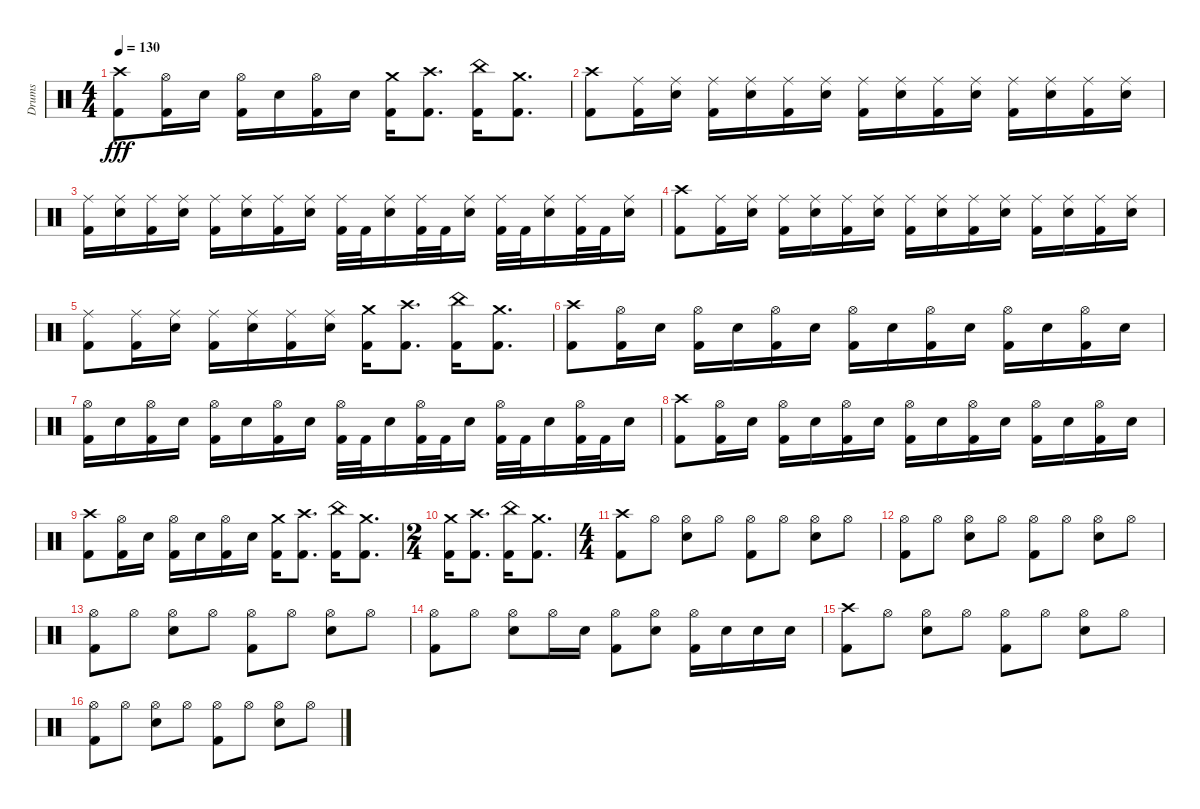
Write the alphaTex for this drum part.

\track ("Drums" "Drums") {instrument percussion}
\staff {score}
\articulation defaults
\ts (4 4)
\tempo 130
\clef neutral
\ks c
("Kick (hit) 2" "Crash high (hit)").8{dy fff} ("Kick (hit) 2" "Hi-Hat (open)").16 "Snare (hit) 2".16 ("Kick (hit) 2" "Hi-Hat (open)").16 "Snare (hit) 2".16 ("Kick (hit) 2" "Hi-Hat (open)").16 "Snare (hit) 2".16 ("Kick (hit) 2" "Crash medium (hit)").16 ("Kick (hit) 2" "Crash high (hit)").8{d} ("Kick (hit) 2" "China (hit)").16 ("Kick (hit) 2" "Crash medium (hit)").8{d} |
("Kick (hit) 2" "Crash high (hit)").8 ("Kick (hit) 2" "Ride (middle)").16 ("Snare (hit) 2" "Ride (middle)").16 ("Kick (hit) 2" "Ride (middle)").16 ("Snare (hit) 2" "Ride (middle)").16 ("Kick (hit) 2" "Ride (middle)").16 ("Snare (hit) 2" "Ride (middle)").16 ("Kick (hit) 2" "Ride (middle)").16 ("Snare (hit) 2" "Ride (middle)").16 ("Kick (hit) 2" "Ride (middle)").16 ("Snare (hit) 2" "Ride (middle)").16 ("Kick (hit) 2" "Ride (middle)").16 ("Snare (hit) 2" "Ride (middle)").16 ("Kick (hit) 2" "Ride (middle)").16 ("Snare (hit) 2" "Ride (middle)").16 |
("Kick (hit) 2" "Ride (middle)").16 ("Snare (hit) 2" "Ride (middle)").16 ("Kick (hit) 2" "Ride (middle)").16 ("Snare (hit) 2" "Ride (middle)").16 ("Kick (hit) 2" "Ride (middle)").16 ("Snare (hit) 2" "Ride (middle)").16 ("Kick (hit) 2" "Ride (middle)").16 ("Snare (hit) 2" "Ride (middle)").16 ("Kick (hit) 2" "Ride (middle)").32 "Kick (hit) 2".32 ("Snare (hit) 2" "Ride (middle)").16 ("Kick (hit) 2" "Ride (middle)").32 "Kick (hit) 2".32 ("Snare (hit) 2" "Ride (middle)").16 ("Kick (hit) 2" "Ride (middle)").32 "Kick (hit) 2".32 ("Snare (hit) 2" "Ride (middle)").16 ("Kick (hit) 2" "Ride (middle)").32 "Kick (hit) 2".32 ("Snare (hit) 2" "Ride (middle)").16 |
("Kick (hit) 2" "Crash high (hit)").8 ("Kick (hit) 2" "Ride (middle)").16 ("Snare (hit) 2" "Ride (middle)").16 ("Kick (hit) 2" "Ride (middle)").16 ("Snare (hit) 2" "Ride (middle)").16 ("Kick (hit) 2" "Ride (middle)").16 ("Snare (hit) 2" "Ride (middle)").16 ("Kick (hit) 2" "Ride (middle)").16 ("Snare (hit) 2" "Ride (middle)").16 ("Kick (hit) 2" "Ride (middle)").16 ("Snare (hit) 2" "Ride (middle)").16 ("Kick (hit) 2" "Ride (middle)").16 ("Snare (hit) 2" "Ride (middle)").16 ("Kick (hit) 2" "Ride (middle)").16 ("Snare (hit) 2" "Ride (middle)").16 |
("Kick (hit) 2" "Ride (middle)").8 ("Kick (hit) 2" "Ride (middle)").16 ("Snare (hit) 2" "Ride (middle)").16 ("Kick (hit) 2" "Ride (middle)").16 ("Snare (hit) 2" "Ride (middle)").16 ("Kick (hit) 2" "Ride (middle)").16 ("Snare (hit) 2" "Ride (middle)").16 ("Kick (hit) 2" "Crash medium (hit)").16 ("Kick (hit) 2" "Crash high (hit)").8{d} ("Kick (hit) 2" "China (hit)").16 ("Kick (hit) 2" "Crash medium (hit)").8{d} |
("Kick (hit) 2" "Crash high (hit)").8 ("Kick (hit) 2" "Hi-Hat (open)").16 "Snare (hit) 2".16 ("Kick (hit) 2" "Hi-Hat (open)").16 "Snare (hit) 2".16 ("Kick (hit) 2" "Hi-Hat (open)").16 "Snare (hit) 2".16 ("Kick (hit) 2" "Hi-Hat (open)").16 "Snare (hit) 2".16 ("Kick (hit) 2" "Hi-Hat (open)").16 "Snare (hit) 2".16 ("Kick (hit) 2" "Hi-Hat (open)").16 "Snare (hit) 2".16 ("Kick (hit) 2" "Hi-Hat (open)").16 "Snare (hit) 2".16 |
("Kick (hit) 2" "Hi-Hat (open)").16 "Snare (hit) 2".16 ("Kick (hit) 2" "Hi-Hat (open)").16 "Snare (hit) 2".16 ("Kick (hit) 2" "Hi-Hat (open)").16 "Snare (hit) 2".16 ("Kick (hit) 2" "Hi-Hat (open)").16 "Snare (hit) 2".16 ("Kick (hit) 2" "Hi-Hat (open)").32 "Kick (hit) 2".32 "Snare (hit) 2".16 ("Kick (hit) 2" "Hi-Hat (open)").32 "Kick (hit) 2".32 "Snare (hit) 2".16 ("Kick (hit) 2" "Hi-Hat (open)").32 "Kick (hit) 2".32 "Snare (hit) 2".16 ("Kick (hit) 2" "Hi-Hat (open)").32 "Kick (hit) 2".32 "Snare (hit) 2".16 |
("Kick (hit) 2" "Crash high (hit)").8 ("Kick (hit) 2" "Hi-Hat (open)").16 "Snare (hit) 2".16 ("Kick (hit) 2" "Hi-Hat (open)").16 "Snare (hit) 2".16 ("Kick (hit) 2" "Hi-Hat (open)").16 "Snare (hit) 2".16 ("Kick (hit) 2" "Hi-Hat (open)").16 "Snare (hit) 2".16 ("Kick (hit) 2" "Hi-Hat (open)").16 "Snare (hit) 2".16 ("Kick (hit) 2" "Hi-Hat (open)").16 "Snare (hit) 2".16 ("Kick (hit) 2" "Hi-Hat (open)").16 "Snare (hit) 2".16 |
("Kick (hit) 2" "Crash high (hit)").8 ("Kick (hit) 2" "Hi-Hat (open)").16 "Snare (hit) 2".16 ("Kick (hit) 2" "Hi-Hat (open)").16 "Snare (hit) 2".16 ("Kick (hit) 2" "Hi-Hat (open)").16 "Snare (hit) 2".16 ("Kick (hit) 2" "Crash medium (hit)").16 ("Kick (hit) 2" "Crash high (hit)").8{d} ("Kick (hit) 2" "China (hit)").16 ("Kick (hit) 2" "Crash medium (hit)").8{d} |
\ts (2 4)
("Kick (hit) 2" "Crash medium (hit)").16 ("Kick (hit) 2" "Crash high (hit)").8{d} ("Kick (hit) 2" "China (hit)").16 ("Kick (hit) 2" "Crash medium (hit)").8{d} |
\ts (4 4)
("Crash high (hit)" "Kick (hit) 2").8 "Hi-Hat (open)".8 ("Hi-Hat (open)" "Snare (hit) 2").8 "Hi-Hat (open)".8 ("Hi-Hat (open)" "Kick (hit) 2").8 "Hi-Hat (open)".8 ("Hi-Hat (open)" "Snare (hit) 2").8 "Hi-Hat (open)".8 |
("Hi-Hat (open)" "Kick (hit) 2").8 "Hi-Hat (open)".8 ("Hi-Hat (open)" "Snare (hit) 2").8 "Hi-Hat (open)".8 ("Hi-Hat (open)" "Kick (hit) 2").8 "Hi-Hat (open)".8 ("Hi-Hat (open)" "Snare (hit) 2").8 "Hi-Hat (open)".8 |
("Hi-Hat (open)" "Kick (hit) 2").8 "Hi-Hat (open)".8 ("Hi-Hat (open)" "Snare (hit) 2").8 "Hi-Hat (open)".8 ("Hi-Hat (open)" "Kick (hit) 2").8 "Hi-Hat (open)".8 ("Hi-Hat (open)" "Snare (hit) 2").8 "Hi-Hat (open)".8 |
("Hi-Hat (open)" "Kick (hit) 2").8 "Hi-Hat (open)".8 ("Hi-Hat (open)" "Snare (hit) 2").8 "Hi-Hat (open)".16 "Snare (hit) 2".16 ("Hi-Hat (open)" "Kick (hit) 2").8 ("Hi-Hat (open)" "Snare (hit) 2").8 ("Kick (hit) 2" "Hi-Hat (open)").16 "Snare (hit) 2".16 "Snare (hit) 2".16 "Snare (hit) 2".16 |
("Crash high (hit)" "Kick (hit) 2").8 "Hi-Hat (open)".8 ("Hi-Hat (open)" "Snare (hit) 2").8 "Hi-Hat (open)".8 ("Hi-Hat (open)" "Kick (hit) 2").8 "Hi-Hat (open)".8 ("Hi-Hat (open)" "Snare (hit) 2").8 "Hi-Hat (open)".8 |
("Hi-Hat (open)" "Kick (hit) 2").8 "Hi-Hat (open)".8 ("Hi-Hat (open)" "Snare (hit) 2").8 "Hi-Hat (open)".8 ("Hi-Hat (open)" "Kick (hit) 2").8 "Hi-Hat (open)".8 ("Hi-Hat (open)" "Snare (hit) 2").8 "Hi-Hat (open)".8
